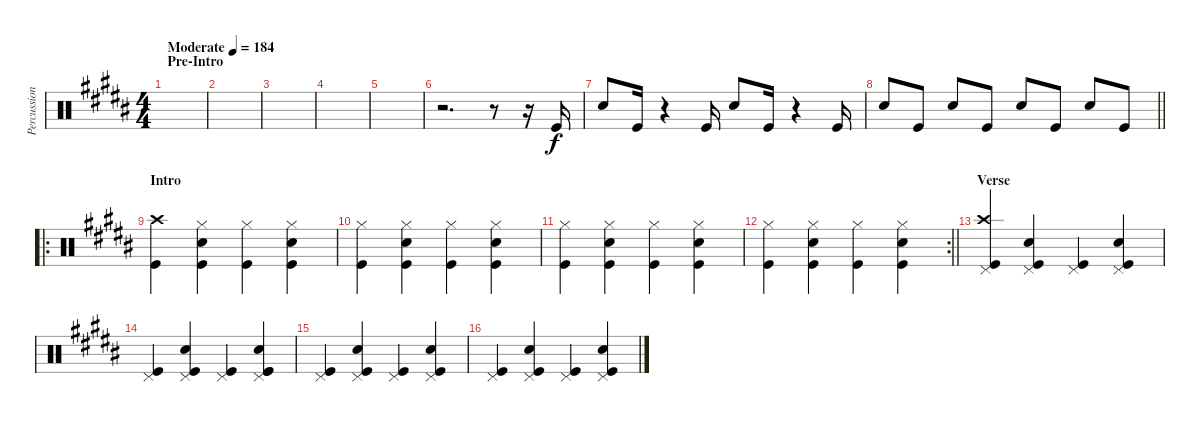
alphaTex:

\track ("Percussion" "Percussion") {instrument percussion}
\staff {score}
\articulation defaults
\ts (4 4)
\section ("" "Pre-Intro")
\tempo (184 "Moderate")
\clef neutral
\ks b
|
|
|
|
|
r.2{d} r.8 r.16 "Kick (hit)".16 |
"Snare (hit) 2".8 "Kick (hit)".16 r.4 "Kick (hit)".16 "Snare (hit) 2".8 "Kick (hit)".16 r.4 "Kick (hit)".16 |
\barLineRight lightlight "Snare (hit) 2".8 "Kick (hit)".8 "Snare (hit) 2".8 "Kick (hit)".8 "Snare (hit) 2".8 "Kick (hit)".8 "Snare (hit) 2".8 "Kick (hit)".8
|
\ro
\section ("" "Intro")
("Crash high (hit)" "Kick (hit)").4 ("Snare (hit) 2" "Kick (hit)" "Hi-Hat (closed)").4 ("Kick (hit)" "Hi-Hat (closed)").4 ("Snare (hit) 2" "Kick (hit)" "Hi-Hat (closed)").4 |
("Hi-Hat (closed)" "Kick (hit)").4 ("Snare (hit) 2" "Kick (hit)" "Hi-Hat (closed)").4 ("Hi-Hat (closed)" "Kick (hit)").4 ("Snare (hit) 2" "Kick (hit)" "Hi-Hat (closed)").4 |
("Hi-Hat (closed)" "Kick (hit)").4 ("Kick (hit)" "Hi-Hat (closed)" "Snare (hit) 2").4 ("Hi-Hat (closed)" "Kick (hit)").4 ("Hi-Hat (closed)" "Kick (hit)" "Snare (hit) 2").4 |
\rc 2
\barLineRight lightlight
("Hi-Hat (closed)" "Kick (hit)").4 ("Hi-Hat (closed)" "Kick (hit)" "Snare (hit) 2").4 ("Hi-Hat (closed)" "Kick (hit)").4 ("Hi-Hat (closed)" "Kick (hit)" "Snare (hit) 2").4 |
\section ("" "Verse")
("Pedal Hi-Hat (hit)" "Kick (hit)" "Crash high (hit)").4 ("Kick (hit)" "Pedal Hi-Hat (hit)" "Snare (hit) 2").4 ("Kick (hit)" "Pedal Hi-Hat (hit)").4 ("Kick (hit)" "Pedal Hi-Hat (hit)" "Snare (hit) 2").4 |
("Kick (hit)" "Pedal Hi-Hat (hit)").4 ("Kick (hit)" "Pedal Hi-Hat (hit)" "Snare (hit) 2").4 ("Kick (hit)" "Pedal Hi-Hat (hit)").4 ("Kick (hit)" "Pedal Hi-Hat (hit)" "Kick (hit)" "Snare (hit) 2").4 |
("Kick (hit)" "Pedal Hi-Hat (hit)").4 ("Kick (hit)" "Pedal Hi-Hat (hit)" "Snare (hit) 2").4 ("Kick (hit)" "Pedal Hi-Hat (hit)").4 ("Kick (hit)" "Pedal Hi-Hat (hit)" "Snare (hit) 2").4 |
("Kick (hit)" "Pedal Hi-Hat (hit)").4 ("Kick (hit)" "Pedal Hi-Hat (hit)" "Snare (hit) 2").4 ("Kick (hit)" "Pedal Hi-Hat (hit)").4 ("Kick (hit)" "Pedal Hi-Hat (hit)" "Snare (hit) 2").4
